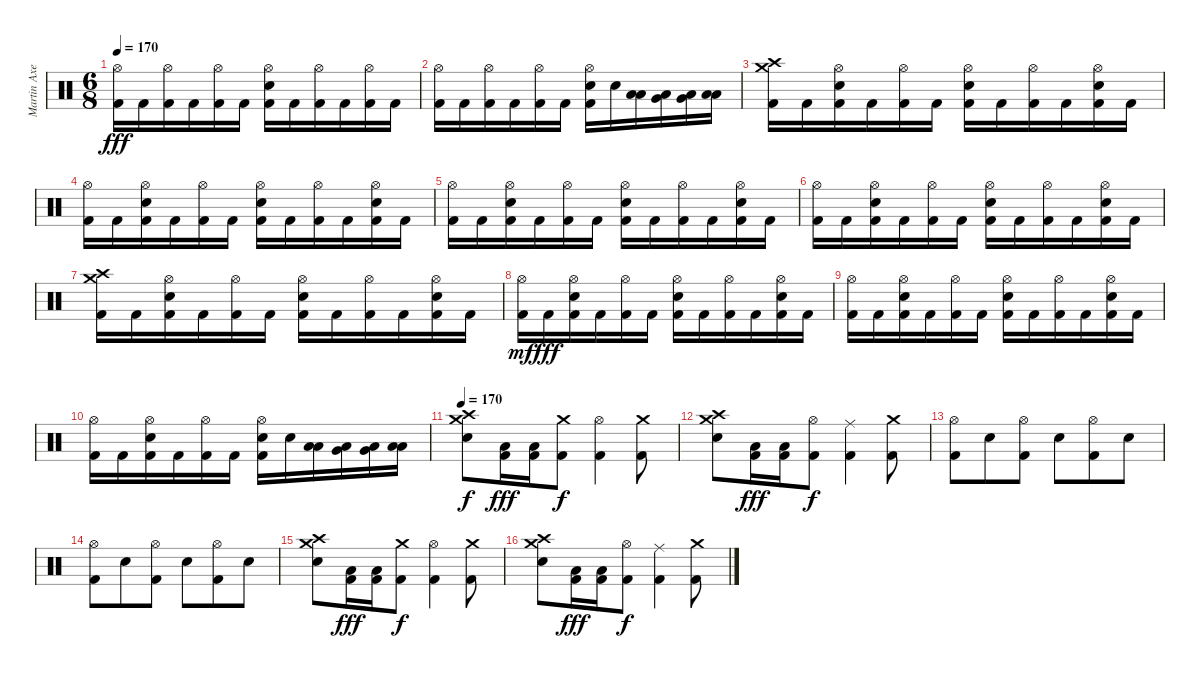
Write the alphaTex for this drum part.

\track ("Martin Axenrot" "Martin Axe") {instrument percussion}
\staff
\articulation defaults
\ts (6 8)
\tempo 170
\clef neutral
\ks c
("Hi-Hat (open)" "Kick (hit) 2").16{dy fff} "Kick (hit) 2".16 ("Hi-Hat (open)" "Kick (hit) 2").16 "Kick (hit) 2".16 ("Hi-Hat (open)" "Kick (hit) 2").16 "Kick (hit) 2".16 ("Hi-Hat (open)" "Snare (hit) 2" "Kick (hit) 2").16 "Kick (hit) 2".16 ("Hi-Hat (open)" "Kick (hit) 2").16 "Kick (hit) 2".16 ("Hi-Hat (open)" "Kick (hit) 2").16 "Kick (hit) 2".16 |
("Hi-Hat (open)" "Kick (hit) 2").16 "Kick (hit) 2".16 ("Hi-Hat (open)" "Kick (hit) 2").16 "Kick (hit) 2".16 ("Hi-Hat (open)" "Kick (hit) 2").16 "Kick (hit) 2".16 ("Hi-Hat (open)" "Snare (hit) 2" "Kick (hit) 2").16 "Snare (hit) 2".16 ("Low Tom (hit)" "Low Tom (hit)").16 ("Very Low Tom (hit)" "Low Tom (hit)").16 ("Very Low Tom (hit)" "Low Tom (hit)").16 ("Low Tom (hit)" "Low Tom (hit)").16 |
("Crash high (hit)" "Crash medium (hit)" "Kick (hit) 2").16 "Kick (hit) 2".16 ("Hi-Hat (open)" "Snare (hit) 2" "Kick (hit) 2").16 "Kick (hit) 2".16 ("Hi-Hat (open)" "Kick (hit) 2").16 "Kick (hit) 2".16 ("Hi-Hat (open)" "Snare (hit) 2" "Kick (hit) 2").16 "Kick (hit) 2".16 ("Hi-Hat (open)" "Kick (hit) 2").16 "Kick (hit) 2".16 ("Hi-Hat (open)" "Snare (hit) 2" "Kick (hit) 2").16 "Kick (hit) 2".16 |
("Hi-Hat (open)" "Kick (hit) 2").16 "Kick (hit) 2".16 ("Hi-Hat (open)" "Snare (hit) 2" "Kick (hit) 2").16 "Kick (hit) 2".16 ("Hi-Hat (open)" "Kick (hit) 2").16 "Kick (hit) 2".16 ("Hi-Hat (open)" "Snare (hit) 2" "Kick (hit) 2").16 "Kick (hit) 2".16 ("Hi-Hat (open)" "Kick (hit) 2").16 "Kick (hit) 2".16 ("Hi-Hat (open)" "Snare (hit) 2" "Kick (hit) 2").16 "Kick (hit) 2".16 |
("Hi-Hat (open)" "Kick (hit) 2").16 "Kick (hit) 2".16 ("Hi-Hat (open)" "Snare (hit) 2" "Kick (hit) 2").16 "Kick (hit) 2".16 ("Hi-Hat (open)" "Kick (hit) 2").16 "Kick (hit) 2".16 ("Hi-Hat (open)" "Snare (hit) 2" "Kick (hit) 2").16 "Kick (hit) 2".16 ("Hi-Hat (open)" "Kick (hit) 2").16 "Kick (hit) 2".16 ("Hi-Hat (open)" "Snare (hit) 2" "Kick (hit) 2").16 "Kick (hit) 2".16 |
("Hi-Hat (open)" "Kick (hit) 2").16 "Kick (hit) 2".16 ("Hi-Hat (open)" "Snare (hit) 2" "Kick (hit) 2").16 "Kick (hit) 2".16 ("Hi-Hat (open)" "Kick (hit) 2").16 "Kick (hit) 2".16 ("Hi-Hat (open)" "Snare (hit) 2" "Kick (hit) 2").16 "Kick (hit) 2".16 ("Hi-Hat (open)" "Kick (hit) 2").16 "Kick (hit) 2".16 ("Hi-Hat (open)" "Snare (hit) 2" "Kick (hit) 2").16 "Kick (hit) 2".16 |
("Crash high (hit)" "Crash medium (hit)" "Kick (hit) 2").16 "Kick (hit) 2".16 ("Hi-Hat (open)" "Snare (hit) 2" "Kick (hit) 2").16 "Kick (hit) 2".16 ("Hi-Hat (open)" "Kick (hit) 2").16 "Kick (hit) 2".16 ("Hi-Hat (open)" "Snare (hit) 2" "Kick (hit) 2").16 "Kick (hit) 2".16 ("Hi-Hat (open)" "Kick (hit) 2").16 "Kick (hit) 2".16 ("Hi-Hat (open)" "Snare (hit) 2" "Kick (hit) 2").16 "Kick (hit) 2".16 |
("Hi-Hat (open)" "Kick (hit) 2").16{dy mf} "Kick (hit) 2".16{dy fff} ("Hi-Hat (open)" "Snare (hit) 2" "Kick (hit) 2").16 "Kick (hit) 2".16 ("Hi-Hat (open)" "Kick (hit) 2").16 "Kick (hit) 2".16 ("Hi-Hat (open)" "Snare (hit) 2" "Kick (hit) 2").16 "Kick (hit) 2".16 ("Hi-Hat (open)" "Kick (hit) 2").16 "Kick (hit) 2".16 ("Hi-Hat (open)" "Snare (hit) 2" "Kick (hit) 2").16 "Kick (hit) 2".16 |
("Hi-Hat (open)" "Kick (hit) 2").16 "Kick (hit) 2".16 ("Hi-Hat (open)" "Snare (hit) 2" "Kick (hit) 2").16 "Kick (hit) 2".16 ("Hi-Hat (open)" "Kick (hit) 2").16 "Kick (hit) 2".16 ("Hi-Hat (open)" "Snare (hit) 2" "Kick (hit) 2").16 "Kick (hit) 2".16 ("Hi-Hat (open)" "Kick (hit) 2").16 "Kick (hit) 2".16 ("Hi-Hat (open)" "Snare (hit) 2" "Kick (hit) 2").16 "Kick (hit) 2".16 |
("Hi-Hat (open)" "Kick (hit) 2").16 "Kick (hit) 2".16 ("Hi-Hat (open)" "Snare (hit) 2" "Kick (hit) 2").16 "Kick (hit) 2".16 ("Hi-Hat (open)" "Kick (hit) 2").16 "Kick (hit) 2".16 ("Hi-Hat (open)" "Snare (hit) 2" "Kick (hit) 2").16 "Snare (hit) 2".16 ("Low Tom (hit)" "Low Tom (hit)").16 ("Very Low Tom (hit)" "Low Tom (hit)").16 ("Very Low Tom (hit)" "Low Tom (hit)").16 ("Low Tom (hit)" "Low Tom (hit)").16 |
\tempo 170
("Crash high (hit)" "Crash medium (hit)" "Snare (hit) 2").8{dy f} ("Low Tom (hit)" "Kick (hit) 2").16{dy fff} ("Low Tom (hit)" "Kick (hit) 2").16 ("Crash medium (hit)" "Kick (hit) 2").8{dy f} ("Hi-Hat (open)" "Kick (hit) 2").4 ("Crash medium (hit)" "Kick (hit) 2").8 |
("Crash high (hit)" "Crash medium (hit)" "Snare (hit) 2").8 ("Low Tom (hit)" "Kick (hit) 2").16{dy fff} ("Low Tom (hit)" "Kick (hit) 2").16 ("Hi-Hat (open)" "Kick (hit) 2").8{dy f} ("Ride (middle)" "Kick (hit) 2").4 ("Crash medium (hit)" "Kick (hit) 2").8 |
("Hi-Hat (open)" "Kick (hit) 2").8 "Snare (hit) 2".8 ("Hi-Hat (open)" "Kick (hit) 2").8 "Snare (hit) 2".8 ("Hi-Hat (open)" "Kick (hit) 2").8 "Snare (hit) 2".8 |
("Hi-Hat (open)" "Kick (hit) 2").8 "Snare (hit) 2".8 ("Hi-Hat (open)" "Kick (hit) 2").8 "Snare (hit) 2".8 ("Hi-Hat (open)" "Kick (hit) 2").8 "Snare (hit) 2".8 |
("Crash high (hit)" "Crash medium (hit)" "Snare (hit) 2").8 ("Low Tom (hit)" "Kick (hit) 2").16{dy fff} ("Low Tom (hit)" "Kick (hit) 2").16 ("Crash medium (hit)" "Kick (hit) 2").8{dy f} ("Hi-Hat (open)" "Kick (hit) 2").4 ("Crash medium (hit)" "Kick (hit) 2").8 |
("Crash high (hit)" "Crash medium (hit)" "Snare (hit) 2").8 ("Low Tom (hit)" "Kick (hit) 2").16{dy fff} ("Low Tom (hit)" "Kick (hit) 2").16 ("Hi-Hat (open)" "Kick (hit) 2").8{dy f} ("Ride (middle)" "Kick (hit) 2").4 ("Crash medium (hit)" "Kick (hit) 2").8
